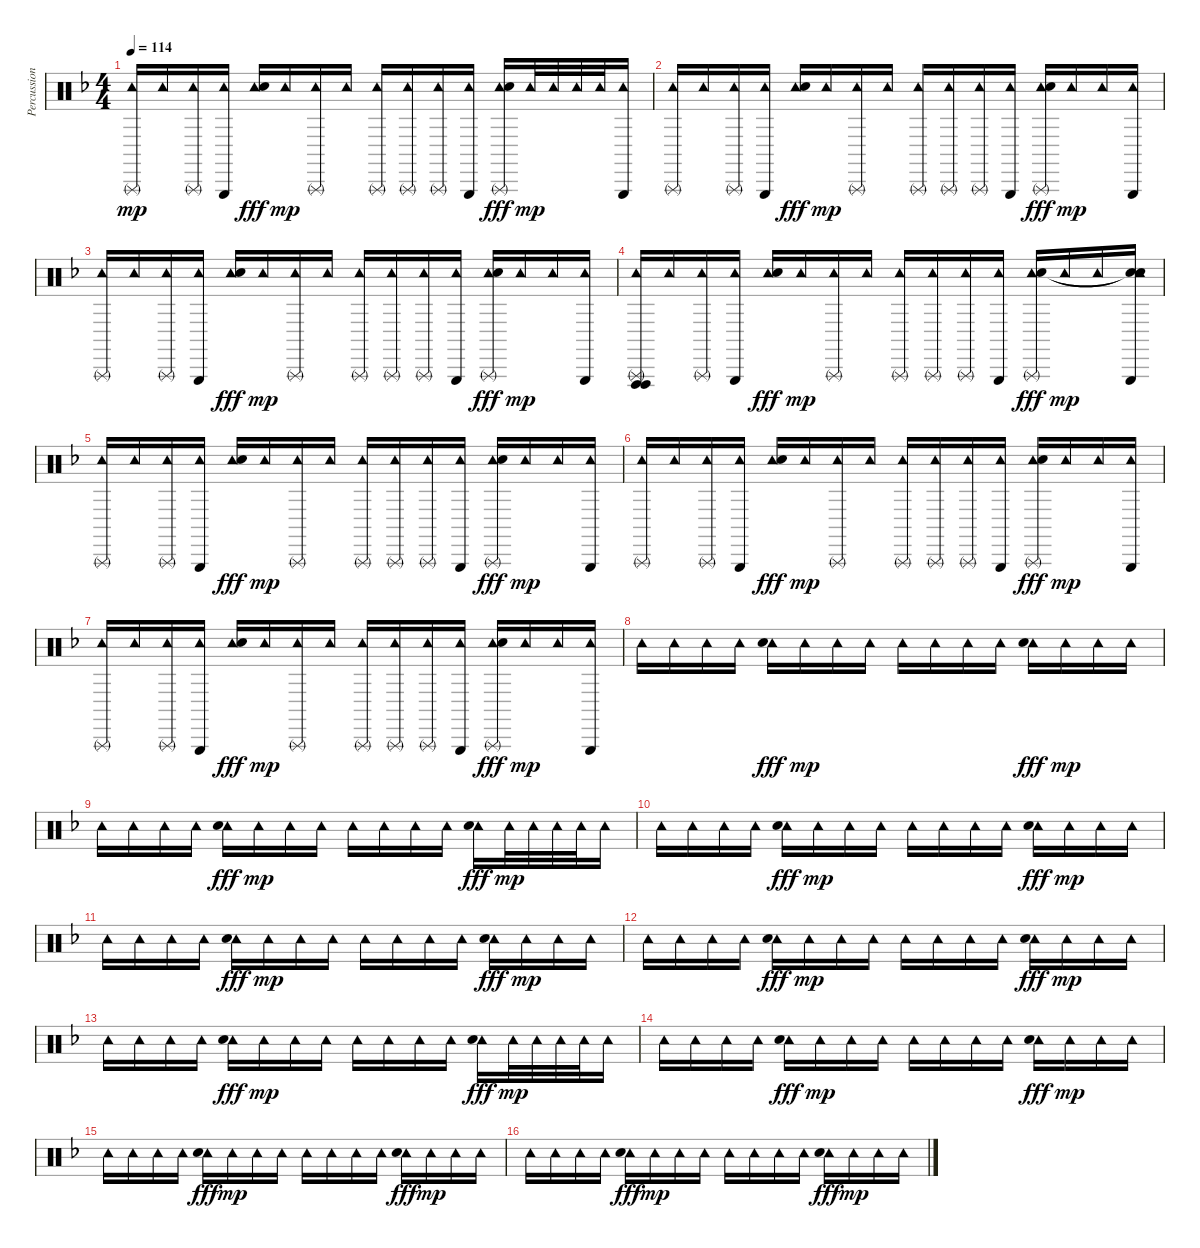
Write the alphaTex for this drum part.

\track ("Percussion" "Percussion") {instrument percussion}
\staff {score}
\articulation defaults
\ts (4 4)
\tempo 114
\clef neutral
\ks f
("Triangle (rnute)" "Tambourine (hit)").16{dy mp} "Tambourine (hit)".16 ("Triangle (rnute)" "Tambourine (hit)").16 ("Triangle (hit)" "Tambourine (hit)").16 ("Tambourine (hit)" "Hand Clap (hit)").16{dy fff} "Tambourine (hit)".16{dy mp} ("Triangle (rnute)" "Tambourine (hit)").16 "Tambourine (hit)".16 ("Triangle (rnute)" "Tambourine (hit)").16 ("Triangle (rnute)" "Tambourine (hit)").16 ("Triangle (rnute)" "Tambourine (hit)").16 ("Triangle (hit)" "Tambourine (hit)").16 ("Triangle (rnute)" "Tambourine (hit)" "Hand Clap (hit)").16{dy fff} "Tambourine (hit)".32{dy mp} "Tambourine (hit)".32 "Tambourine (hit)".32 "Tambourine (hit)".32 ("Triangle (hit)" "Tambourine (hit)").16 |
("Triangle (rnute)" "Tambourine (hit)").16 "Tambourine (hit)".16 ("Triangle (rnute)" "Tambourine (hit)").16 ("Triangle (hit)" "Tambourine (hit)").16 ("Tambourine (hit)" "Hand Clap (hit)").16{dy fff} "Tambourine (hit)".16{dy mp} ("Triangle (rnute)" "Tambourine (hit)").16 "Tambourine (hit)".16 ("Triangle (rnute)" "Tambourine (hit)").16 ("Triangle (rnute)" "Tambourine (hit)").16 ("Triangle (rnute)" "Tambourine (hit)").16 ("Triangle (hit)" "Tambourine (hit)").16 ("Triangle (rnute)" "Tambourine (hit)" "Hand Clap (hit)").16{dy fff} "Tambourine (hit)".16{dy mp} "Tambourine (hit)".16 ("Triangle (hit)" "Tambourine (hit)").16 |
("Triangle (rnute)" "Tambourine (hit)").16 "Tambourine (hit)".16 ("Triangle (rnute)" "Tambourine (hit)").16 ("Triangle (hit)" "Tambourine (hit)").16 ("Tambourine (hit)" "Hand Clap (hit)").16{dy fff} "Tambourine (hit)".16{dy mp} ("Triangle (rnute)" "Tambourine (hit)").16 "Tambourine (hit)".16 ("Triangle (rnute)" "Tambourine (hit)").16 ("Triangle (rnute)" "Tambourine (hit)").16 ("Triangle (rnute)" "Tambourine (hit)").16 ("Triangle (hit)" "Tambourine (hit)").16 ("Triangle (rnute)" "Tambourine (hit)" "Hand Clap (hit)").16{dy fff} "Tambourine (hit)".16{dy mp} "Tambourine (hit)".16 ("Triangle (hit)" "Tambourine (hit)").16 |
("Triangle (rnute)" "Vibraslap (hit)" "Vibraslap (hit)" "Tambourine (hit)").16 "Tambourine (hit)".16 ("Triangle (rnute)" "Tambourine (hit)").16 ("Triangle (hit)" "Tambourine (hit)").16 ("Tambourine (hit)" "Hand Clap (hit)").16{dy fff} "Tambourine (hit)".16{dy mp} ("Triangle (rnute)" "Tambourine (hit)").16 "Tambourine (hit)".16 ("Triangle (rnute)" "Tambourine (hit)").16 ("Triangle (rnute)" "Tambourine (hit)").16 ("Triangle (rnute)" "Tambourine (hit)").16 ("Triangle (hit)" "Tambourine (hit)").16 ("Triangle (rnute)" "Tambourine (hit)" "Hand Clap (hit)").16{dy fff} "Tambourine (hit)".16{dy mp} "Tambourine (hit)".16 ("Triangle (hit)" "Snare (hit)"{t} "Snare (hit)"{t} "Tambourine (hit)").16 |
("Triangle (rnute)" "Tambourine (hit)").16 "Tambourine (hit)".16 ("Triangle (rnute)" "Tambourine (hit)").16 ("Triangle (hit)" "Tambourine (hit)").16 ("Tambourine (hit)" "Hand Clap (hit)").16{dy fff} "Tambourine (hit)".16{dy mp} ("Triangle (rnute)" "Tambourine (hit)").16 "Tambourine (hit)".16 ("Triangle (rnute)" "Tambourine (hit)").16 ("Triangle (rnute)" "Tambourine (hit)").16 ("Triangle (rnute)" "Tambourine (hit)").16 ("Triangle (hit)" "Tambourine (hit)").16 ("Triangle (rnute)" "Tambourine (hit)" "Hand Clap (hit)").16{dy fff} "Tambourine (hit)".16{dy mp} "Tambourine (hit)".16 ("Triangle (hit)" "Tambourine (hit)").16 |
("Triangle (rnute)" "Tambourine (hit)").16 "Tambourine (hit)".16 ("Triangle (rnute)" "Tambourine (hit)").16 ("Triangle (hit)" "Tambourine (hit)").16 ("Tambourine (hit)" "Hand Clap (hit)").16{dy fff} "Tambourine (hit)".16{dy mp} ("Triangle (rnute)" "Tambourine (hit)").16 "Tambourine (hit)".16 ("Triangle (rnute)" "Tambourine (hit)").16 ("Triangle (rnute)" "Tambourine (hit)").16 ("Triangle (rnute)" "Tambourine (hit)").16 ("Triangle (hit)" "Tambourine (hit)").16 ("Triangle (rnute)" "Tambourine (hit)" "Hand Clap (hit)").16{dy fff} "Tambourine (hit)".16{dy mp} "Tambourine (hit)".16 ("Triangle (hit)" "Tambourine (hit)").16 |
("Triangle (rnute)" "Tambourine (hit)").16 "Tambourine (hit)".16 ("Triangle (rnute)" "Tambourine (hit)").16 ("Triangle (hit)" "Tambourine (hit)").16 ("Tambourine (hit)" "Hand Clap (hit)").16{dy fff} "Tambourine (hit)".16{dy mp} ("Triangle (rnute)" "Tambourine (hit)").16 "Tambourine (hit)".16 ("Triangle (rnute)" "Tambourine (hit)").16 ("Triangle (rnute)" "Tambourine (hit)").16 ("Triangle (rnute)" "Tambourine (hit)").16 ("Triangle (hit)" "Tambourine (hit)").16 ("Triangle (rnute)" "Tambourine (hit)" "Hand Clap (hit)").16{dy fff} "Tambourine (hit)".16{dy mp} "Tambourine (hit)".16 ("Triangle (hit)" "Tambourine (hit)").16 |
"Tambourine (hit)".16 "Tambourine (hit)".16 "Tambourine (hit)".16 "Tambourine (hit)".16 ("Tambourine (hit)" "Hand Clap (hit)").16{dy fff} "Tambourine (hit)".16{dy mp} "Tambourine (hit)".16 "Tambourine (hit)".16 "Tambourine (hit)".16 "Tambourine (hit)".16 "Tambourine (hit)".16 "Tambourine (hit)".16 ("Tambourine (hit)" "Hand Clap (hit)").16{dy fff} "Tambourine (hit)".16{dy mp} "Tambourine (hit)".16 "Tambourine (hit)".16 |
"Tambourine (hit)".16 "Tambourine (hit)".16 "Tambourine (hit)".16 "Tambourine (hit)".16 ("Tambourine (hit)" "Hand Clap (hit)").16{dy fff} "Tambourine (hit)".16{dy mp} "Tambourine (hit)".16 "Tambourine (hit)".16 "Tambourine (hit)".16 "Tambourine (hit)".16 "Tambourine (hit)".16 "Tambourine (hit)".16 ("Tambourine (hit)" "Hand Clap (hit)").16{dy fff} "Tambourine (hit)".32{dy mp} "Tambourine (hit)".32 "Tambourine (hit)".32 "Tambourine (hit)".32 "Tambourine (hit)".16 |
"Tambourine (hit)".16 "Tambourine (hit)".16 "Tambourine (hit)".16 "Tambourine (hit)".16 ("Tambourine (hit)" "Hand Clap (hit)").16{dy fff} "Tambourine (hit)".16{dy mp} "Tambourine (hit)".16 "Tambourine (hit)".16 "Tambourine (hit)".16 "Tambourine (hit)".16 "Tambourine (hit)".16 "Tambourine (hit)".16 ("Tambourine (hit)" "Hand Clap (hit)").16{dy fff} "Tambourine (hit)".16{dy mp} "Tambourine (hit)".16 "Tambourine (hit)".16 |
"Tambourine (hit)".16 "Tambourine (hit)".16 "Tambourine (hit)".16 "Tambourine (hit)".16 ("Tambourine (hit)" "Hand Clap (hit)").16{dy fff} "Tambourine (hit)".16{dy mp} "Tambourine (hit)".16 "Tambourine (hit)".16 "Tambourine (hit)".16 "Tambourine (hit)".16 "Tambourine (hit)".16 "Tambourine (hit)".16 ("Tambourine (hit)" "Hand Clap (hit)").16{dy fff} "Tambourine (hit)".16{dy mp} "Tambourine (hit)".16 "Tambourine (hit)".16 |
"Tambourine (hit)".16 "Tambourine (hit)".16 "Tambourine (hit)".16 "Tambourine (hit)".16 ("Tambourine (hit)" "Hand Clap (hit)").16{dy fff} "Tambourine (hit)".16{dy mp} "Tambourine (hit)".16 "Tambourine (hit)".16 "Tambourine (hit)".16 "Tambourine (hit)".16 "Tambourine (hit)".16 "Tambourine (hit)".16 ("Tambourine (hit)" "Hand Clap (hit)").16{dy fff} "Tambourine (hit)".16{dy mp} "Tambourine (hit)".16 "Tambourine (hit)".16 |
"Tambourine (hit)".16 "Tambourine (hit)".16 "Tambourine (hit)".16 "Tambourine (hit)".16 ("Tambourine (hit)" "Hand Clap (hit)").16{dy fff} "Tambourine (hit)".16{dy mp} "Tambourine (hit)".16 "Tambourine (hit)".16 "Tambourine (hit)".16 "Tambourine (hit)".16 "Tambourine (hit)".16 "Tambourine (hit)".16 ("Tambourine (hit)" "Hand Clap (hit)").16{dy fff} "Tambourine (hit)".32{dy mp} "Tambourine (hit)".32 "Tambourine (hit)".32 "Tambourine (hit)".32 "Tambourine (hit)".16 |
"Tambourine (hit)".16 "Tambourine (hit)".16 "Tambourine (hit)".16 "Tambourine (hit)".16 ("Tambourine (hit)" "Hand Clap (hit)").16{dy fff} "Tambourine (hit)".16{dy mp} "Tambourine (hit)".16 "Tambourine (hit)".16 "Tambourine (hit)".16 "Tambourine (hit)".16 "Tambourine (hit)".16 "Tambourine (hit)".16 ("Tambourine (hit)" "Hand Clap (hit)").16{dy fff} "Tambourine (hit)".16{dy mp} "Tambourine (hit)".16 "Tambourine (hit)".16 |
"Tambourine (hit)".16 "Tambourine (hit)".16 "Tambourine (hit)".16 "Tambourine (hit)".16 ("Tambourine (hit)" "Hand Clap (hit)").16{dy fff} "Tambourine (hit)".16{dy mp} "Tambourine (hit)".16 "Tambourine (hit)".16 "Tambourine (hit)".16 "Tambourine (hit)".16 "Tambourine (hit)".16 "Tambourine (hit)".16 ("Tambourine (hit)" "Hand Clap (hit)").16{dy fff} "Tambourine (hit)".16{dy mp} "Tambourine (hit)".16 "Tambourine (hit)".16 |
"Tambourine (hit)".16 "Tambourine (hit)".16 "Tambourine (hit)".16 "Tambourine (hit)".16 ("Tambourine (hit)" "Hand Clap (hit)").16{dy fff} "Tambourine (hit)".16{dy mp} "Tambourine (hit)".16 "Tambourine (hit)".16 "Tambourine (hit)".16 "Tambourine (hit)".16 "Tambourine (hit)".16 "Tambourine (hit)".16 ("Tambourine (hit)" "Hand Clap (hit)").16{dy fff} "Tambourine (hit)".16{dy mp} "Tambourine (hit)".16 "Tambourine (hit)".16
